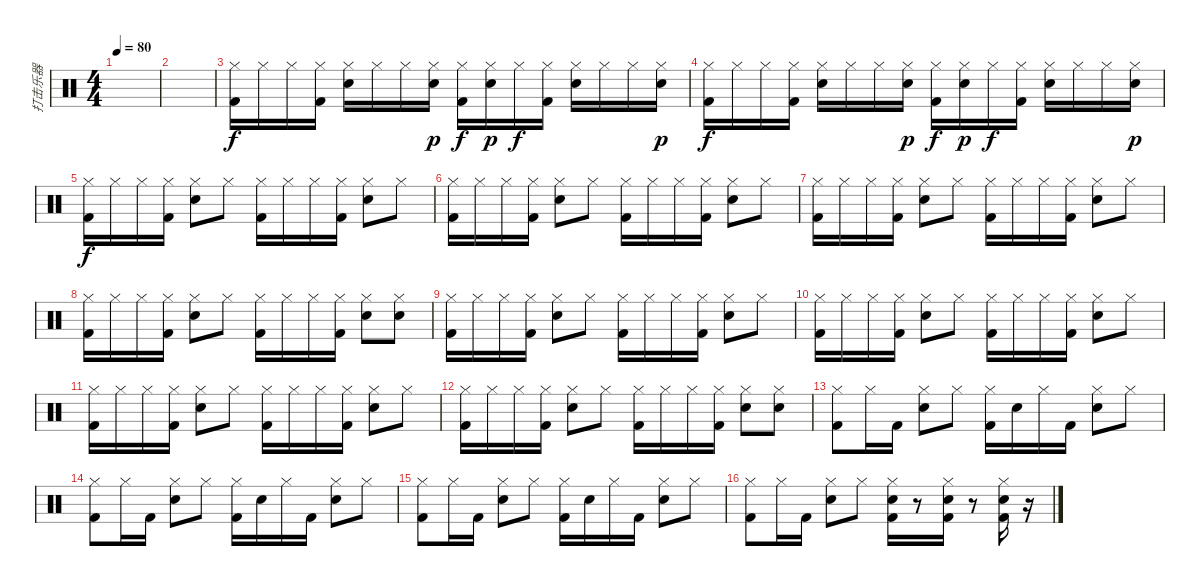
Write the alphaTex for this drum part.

\track ("打击乐器" "打击乐器") {instrument percussion}
\staff {score}
\articulation defaults
\ts (4 4)
\tempo 80
\clef neutral
\ks c
|
|
("Hi-Hat (closed)" "Kick (hit) 2").16 "Hi-Hat (closed)".16 "Hi-Hat (closed)".16 ("Hi-Hat (closed)" "Kick (hit) 2").16 ("Hi-Hat (closed)" "Snare (hit) 2").16 "Hi-Hat (closed)".16 "Hi-Hat (closed)".16 ("Hi-Hat (closed)" "Hand Clap (hit)").16{dy p} ("Hi-Hat (closed)" "Kick (hit) 2").16{dy f} ("Hi-Hat (closed)" "Hand Clap (hit)").16{dy p} "Hi-Hat (closed)".16{dy f} ("Hi-Hat (closed)" "Kick (hit) 2").16 ("Hi-Hat (closed)" "Snare (hit) 2").16 "Hi-Hat (closed)".16 "Hi-Hat (closed)".16 ("Hi-Hat (closed)" "Hand Clap (hit)").16{dy p} |
("Hi-Hat (closed)" "Kick (hit) 2").16{dy f} "Hi-Hat (closed)".16 "Hi-Hat (closed)".16 ("Hi-Hat (closed)" "Kick (hit) 2").16 ("Hi-Hat (closed)" "Snare (hit) 2").16 "Hi-Hat (closed)".16 "Hi-Hat (closed)".16 ("Hi-Hat (closed)" "Hand Clap (hit)").16{dy p} ("Hi-Hat (closed)" "Kick (hit) 2").16{dy f} ("Hi-Hat (closed)" "Hand Clap (hit)").16{dy p} "Hi-Hat (closed)".16{dy f} ("Hi-Hat (closed)" "Kick (hit) 2").16 ("Hi-Hat (closed)" "Snare (hit) 2").16 "Hi-Hat (closed)".16 "Hi-Hat (closed)".16 ("Hi-Hat (closed)" "Hand Clap (hit)").16{dy p} |
("Hi-Hat (closed)" "Kick (hit) 2").16{dy f} "Hi-Hat (closed)".16 "Hi-Hat (closed)".16 ("Hi-Hat (closed)" "Kick (hit) 2").16 ("Hi-Hat (closed)" "Snare (hit) 2").8 "Hi-Hat (closed)".8 ("Hi-Hat (closed)" "Kick (hit) 2").16 "Hi-Hat (closed)".16 "Hi-Hat (closed)".16 ("Hi-Hat (closed)" "Kick (hit) 2").16 ("Hi-Hat (closed)" "Snare (hit) 2").8 "Hi-Hat (closed)".8 |
("Hi-Hat (closed)" "Kick (hit) 2").16 "Hi-Hat (closed)".16 "Hi-Hat (closed)".16 ("Hi-Hat (closed)" "Kick (hit) 2").16 ("Hi-Hat (closed)" "Snare (hit) 2").8 "Hi-Hat (closed)".8 ("Hi-Hat (closed)" "Kick (hit) 2").16 "Hi-Hat (closed)".16 "Hi-Hat (closed)".16 ("Hi-Hat (closed)" "Kick (hit) 2").16 ("Hi-Hat (closed)" "Snare (hit) 2").8 "Hi-Hat (closed)".8 |
("Hi-Hat (closed)" "Kick (hit) 2").16 "Hi-Hat (closed)".16 "Hi-Hat (closed)".16 ("Hi-Hat (closed)" "Kick (hit) 2").16 ("Hi-Hat (closed)" "Snare (hit) 2").8 "Hi-Hat (closed)".8 ("Hi-Hat (closed)" "Kick (hit) 2").16 "Hi-Hat (closed)".16 "Hi-Hat (closed)".16 ("Hi-Hat (closed)" "Kick (hit) 2").16 ("Hi-Hat (closed)" "Snare (hit) 2").8 "Hi-Hat (closed)".8 |
("Hi-Hat (closed)" "Kick (hit) 2").16 "Hi-Hat (closed)".16 "Hi-Hat (closed)".16 ("Hi-Hat (closed)" "Kick (hit) 2").16 ("Hi-Hat (closed)" "Snare (hit) 2").8 "Hi-Hat (closed)".8 ("Hi-Hat (closed)" "Kick (hit) 2").16 "Hi-Hat (closed)".16 "Hi-Hat (closed)".16 ("Hi-Hat (closed)" "Kick (hit) 2").16 ("Hi-Hat (closed)" "Snare (hit) 2").8 ("Hi-Hat (closed)" "Snare (hit) 2").8 |
("Hi-Hat (closed)" "Kick (hit) 2").16 "Hi-Hat (closed)".16 "Hi-Hat (closed)".16 ("Hi-Hat (closed)" "Kick (hit) 2").16 ("Hi-Hat (closed)" "Snare (hit) 2").8 "Hi-Hat (closed)".8 ("Hi-Hat (closed)" "Kick (hit) 2").16 "Hi-Hat (closed)".16 "Hi-Hat (closed)".16 ("Hi-Hat (closed)" "Kick (hit) 2").16 ("Hi-Hat (closed)" "Snare (hit) 2").8 "Hi-Hat (closed)".8 |
("Hi-Hat (closed)" "Kick (hit) 2").16 "Hi-Hat (closed)".16 "Hi-Hat (closed)".16 ("Hi-Hat (closed)" "Kick (hit) 2").16 ("Hi-Hat (closed)" "Snare (hit) 2").8 "Hi-Hat (closed)".8 ("Hi-Hat (closed)" "Kick (hit) 2").16 "Hi-Hat (closed)".16 "Hi-Hat (closed)".16 ("Hi-Hat (closed)" "Kick (hit) 2").16 ("Hi-Hat (closed)" "Snare (hit) 2").8 "Hi-Hat (closed)".8 |
("Hi-Hat (closed)" "Kick (hit) 2").16 "Hi-Hat (closed)".16 "Hi-Hat (closed)".16 ("Hi-Hat (closed)" "Kick (hit) 2").16 ("Hi-Hat (closed)" "Snare (hit) 2").8 "Hi-Hat (closed)".8 ("Hi-Hat (closed)" "Kick (hit) 2").16 "Hi-Hat (closed)".16 "Hi-Hat (closed)".16 ("Hi-Hat (closed)" "Kick (hit) 2").16 ("Hi-Hat (closed)" "Snare (hit) 2").8 "Hi-Hat (closed)".8 |
("Hi-Hat (closed)" "Kick (hit) 2").16 "Hi-Hat (closed)".16 "Hi-Hat (closed)".16 ("Hi-Hat (closed)" "Kick (hit) 2").16 ("Hi-Hat (closed)" "Snare (hit) 2").8 "Hi-Hat (closed)".8 ("Hi-Hat (closed)" "Kick (hit) 2").16 "Hi-Hat (closed)".16 "Hi-Hat (closed)".16 ("Hi-Hat (closed)" "Kick (hit) 2").16 ("Hi-Hat (closed)" "Snare (hit) 2").8 ("Hi-Hat (closed)" "Snare (hit) 2").8 |
("Hi-Hat (closed)" "Kick (hit) 2").8 "Hi-Hat (closed)".16 "Kick (hit) 2".16 ("Hi-Hat (closed)" "Electric Snare (hit)").8 "Hi-Hat (closed)".8 ("Hi-Hat (closed)" "Kick (hit) 2").16 "Electric Snare (hit)".16 "Hi-Hat (closed)".16 "Kick (hit) 2".16 ("Hi-Hat (closed)" "Electric Snare (hit)").8 "Hi-Hat (closed)".8 |
("Hi-Hat (closed)" "Kick (hit) 2").8 "Hi-Hat (closed)".16 "Kick (hit) 2".16 ("Hi-Hat (closed)" "Electric Snare (hit)").8 "Hi-Hat (closed)".8 ("Hi-Hat (closed)" "Kick (hit) 2").16 "Electric Snare (hit)".16 "Hi-Hat (closed)".16 "Kick (hit) 2".16 ("Hi-Hat (closed)" "Electric Snare (hit)").8 "Hi-Hat (closed)".8 |
("Hi-Hat (closed)" "Kick (hit) 2").8 "Hi-Hat (closed)".16 "Kick (hit) 2".16 ("Hi-Hat (closed)" "Electric Snare (hit)").8 "Hi-Hat (closed)".8 ("Hi-Hat (closed)" "Kick (hit) 2").16 "Electric Snare (hit)".16 "Hi-Hat (closed)".16 "Kick (hit) 2".16 ("Hi-Hat (closed)" "Electric Snare (hit)").8 "Hi-Hat (closed)".8 |
("Hi-Hat (closed)" "Kick (hit) 2").8 "Hi-Hat (closed)".16 "Kick (hit) 2".16 ("Hi-Hat (closed)" "Electric Snare (hit)").8 "Hi-Hat (closed)".8 ("Hi-Hat (closed)" "Electric Snare (hit)" "Kick (hit) 2").16 r.8 ("Hi-Hat (closed)" "Electric Snare (hit)" "Kick (hit) 2").16 r.8 ("Hi-Hat (closed)" "Electric Snare (hit)" "Kick (hit) 2").16 r.16
